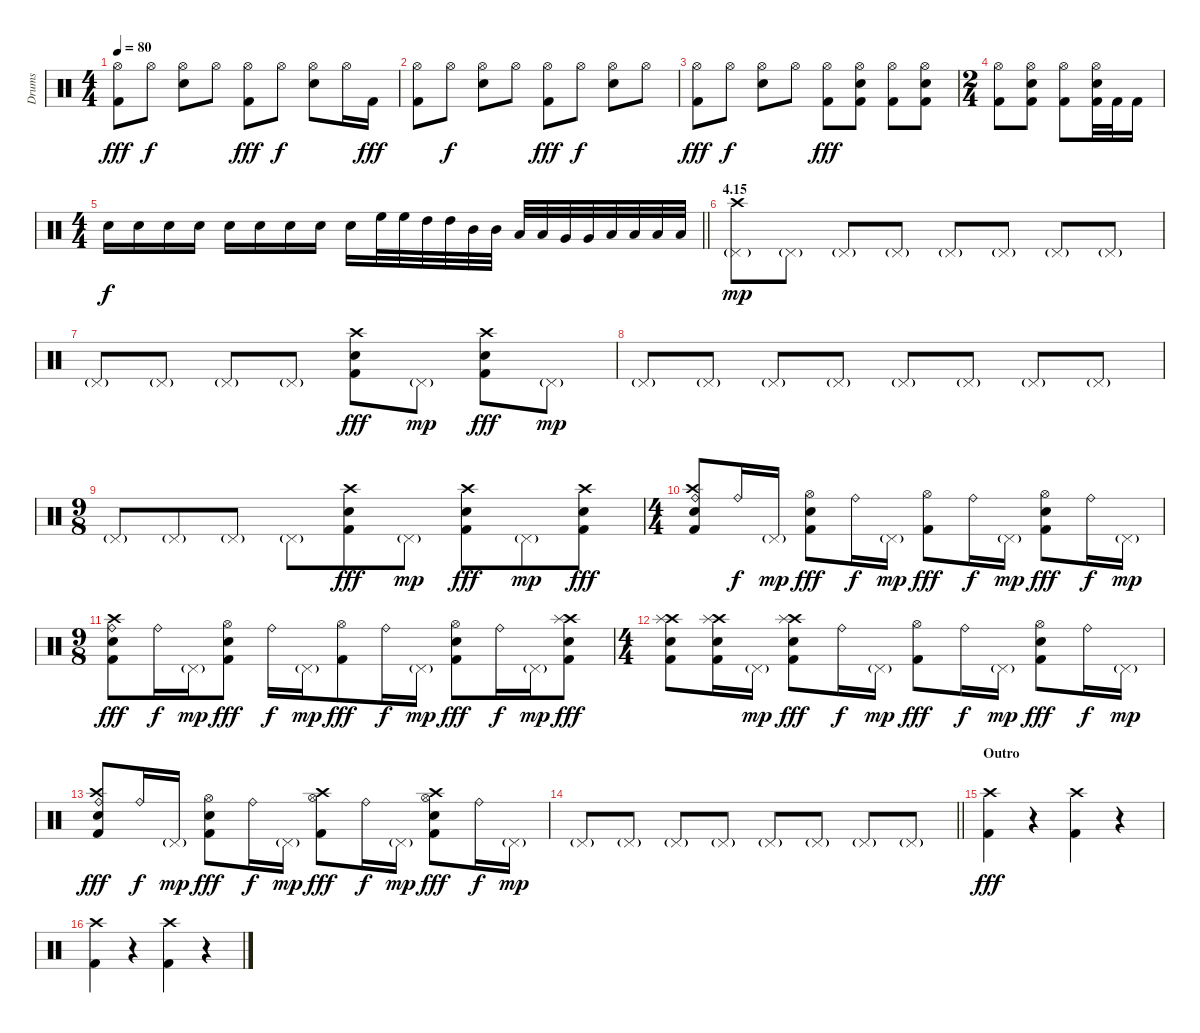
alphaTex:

\track ("Drums" "Drums") {instrument percussion}
\staff {score}
\articulation defaults
\ts (4 4)
\tempo 80
\clef neutral
\ks c
("Hi-Hat (open)" "Kick (hit) 2").8{dy fff} "Hi-Hat (open)".8{dy f} ("Hi-Hat (open)" "Electric Snare (hit)").8 "Hi-Hat (open)".8 ("Hi-Hat (open)" "Kick (hit) 2").8{dy fff} "Hi-Hat (open)".8{dy f} ("Hi-Hat (open)" "Electric Snare (hit)").8 "Hi-Hat (open)".16 "Kick (hit) 2".16{dy fff} |
("Hi-Hat (open)" "Kick (hit) 2").8 "Hi-Hat (open)".8{dy f} ("Hi-Hat (open)" "Electric Snare (hit)").8 "Hi-Hat (open)".8 ("Hi-Hat (open)" "Kick (hit) 2").8{dy fff} "Hi-Hat (open)".8{dy f} ("Hi-Hat (open)" "Electric Snare (hit)").8 "Hi-Hat (open)".8 |
("Hi-Hat (open)" "Kick (hit) 2").8{dy fff} "Hi-Hat (open)".8{dy f} ("Hi-Hat (open)" "Electric Snare (hit)").8 "Hi-Hat (open)".8 ("Hi-Hat (open)" "Kick (hit) 2").8{dy fff} ("Hi-Hat (open)" "Electric Snare (hit)" "Kick (hit) 2").8 ("Hi-Hat (open)" "Kick (hit) 2").8 ("Hi-Hat (open)" "Electric Snare (hit)" "Kick (hit) 2").8 |
\ts (2 4)
("Hi-Hat (open)" "Kick (hit) 2").8 ("Hi-Hat (open)" "Electric Snare (hit)" "Kick (hit) 2").8 ("Hi-Hat (open)" "Kick (hit) 2").8 ("Hi-Hat (open)" "Electric Snare (hit)" "Kick (hit) 2").32 "Kick (hit) 2".32 "Kick (hit) 2".16 |
\ts (4 4)
\barLineRight lightlight "Electric Snare (hit)".16{dy f} "Electric Snare (hit)".16 "Electric Snare (hit)".16 "Electric Snare (hit)".16 "Electric Snare (hit)".16 "Electric Snare (hit)".16 "Electric Snare (hit)".16 "Electric Snare (hit)".16 "Electric Snare (hit)".16 "High Floor Tom (hit)".32 "High Floor Tom (hit)".32 "High Tom (hit)".32 "High Tom (hit)".32 "Mid Tom (hit)".32 "Mid Tom (hit)".32 "Low Tom (hit)".32 "Low Tom (hit)".32 "Very Low Tom (hit)".32 "Very Low Tom (hit)".32 "Low Floor Tom (hit)".32 "Low Floor Tom (hit)".32 "Low Floor Tom (hit)".32 "Low Floor Tom (hit)".32
|
\section ("" "4.15")
("Crash high (hit)" "Pedal Hi-Hat (hit)"{g}).8{dy mp} "Pedal Hi-Hat (hit)"{g}.8 "Pedal Hi-Hat (hit)"{g}.8 "Pedal Hi-Hat (hit)"{g}.8 "Pedal Hi-Hat (hit)"{g}.8 "Pedal Hi-Hat (hit)"{g}.8 "Pedal Hi-Hat (hit)"{g}.8 "Pedal Hi-Hat (hit)"{g}.8 |
"Pedal Hi-Hat (hit)"{g}.8 "Pedal Hi-Hat (hit)"{g}.8 "Pedal Hi-Hat (hit)"{g}.8 "Pedal Hi-Hat (hit)"{g}.8 ("Crash high (hit)" "Electric Snare (hit)" "Kick (hit) 2").8{dy fff} "Pedal Hi-Hat (hit)"{g}.8{dy mp} ("Crash high (hit)" "Electric Snare (hit)" "Kick (hit) 2").8{dy fff} "Pedal Hi-Hat (hit)"{g}.8{dy mp} |
"Pedal Hi-Hat (hit)"{g}.8 "Pedal Hi-Hat (hit)"{g}.8 "Pedal Hi-Hat (hit)"{g}.8 "Pedal Hi-Hat (hit)"{g}.8 "Pedal Hi-Hat (hit)"{g}.8 "Pedal Hi-Hat (hit)"{g}.8 "Pedal Hi-Hat (hit)"{g}.8 "Pedal Hi-Hat (hit)"{g}.8 |
\ts (9 8)
"Pedal Hi-Hat (hit)"{g}.8 "Pedal Hi-Hat (hit)"{g}.8 "Pedal Hi-Hat (hit)"{g}.8 "Pedal Hi-Hat (hit)"{g}.8 ("Crash high (hit)" "Electric Snare (hit)" "Kick (hit) 2").8{dy fff} "Pedal Hi-Hat (hit)"{g}.8{dy mp} ("Crash high (hit)" "Electric Snare (hit)" "Kick (hit) 2").8{dy fff} "Pedal Hi-Hat (hit)"{g}.8{dy mp} ("Crash high (hit)" "Electric Snare (hit)" "Kick (hit) 2").8{dy fff} |
\ts (4 4)
("Crash high (hit)" "Ride (bell)" "Electric Snare (hit)" "Kick (hit) 2").8 "Ride (bell)".16{dy f} "Pedal Hi-Hat (hit)"{g}.16{dy mp} ("Hi-Hat (open)" "Electric Snare (hit)" "Kick (hit) 2").8{dy fff} "Ride (bell)".16{dy f} "Pedal Hi-Hat (hit)"{g}.16{dy mp} ("Hi-Hat (open)" "Kick (hit) 2").8{dy fff} "Ride (bell)".16{dy f} "Pedal Hi-Hat (hit)"{g}.16{dy mp} ("Hi-Hat (open)" "Electric Snare (hit)" "Kick (hit) 2").8{dy fff} "Ride (bell)".16{dy f} "Pedal Hi-Hat (hit)"{g}.16{dy mp} |
\ts (9 8)
("Crash high (hit)" "Ride (bell)" "Electric Snare (hit)" "Kick (hit) 2").8{dy fff} "Ride (bell)".16{dy f} "Pedal Hi-Hat (hit)"{g}.16{dy mp} ("Hi-Hat (open)" "Electric Snare (hit)" "Kick (hit) 2").8{dy fff} "Ride (bell)".16{dy f} "Pedal Hi-Hat (hit)"{g}.16{dy mp} ("Hi-Hat (open)" "Kick (hit) 2").8{dy fff} "Ride (bell)".16{dy f} "Pedal Hi-Hat (hit)"{g}.16{dy mp} ("Hi-Hat (open)" "Electric Snare (hit)" "Kick (hit) 2").8{dy fff} "Ride (bell)".16{dy f} "Pedal Hi-Hat (hit)"{g}.16{dy mp} ("Crash high (hit)" "Splash (hit)" "Electric Snare (hit)" "Kick (hit) 2").8{dy fff} |
\ts (4 4)
("Crash high (hit)" "Splash (hit)" "Electric Snare (hit)" "Kick (hit) 2").8 ("Crash high (hit)" "Splash (hit)" "Electric Snare (hit)" "Kick (hit) 2").16 "Pedal Hi-Hat (hit)"{g}.16{dy mp} ("Crash high (hit)" "Splash (hit)" "Electric Snare (hit)" "Kick (hit) 2").8{dy fff} "Ride (bell)".16{dy f} "Pedal Hi-Hat (hit)"{g}.16{dy mp} ("Hi-Hat (open)" "Kick (hit) 2").8{dy fff} "Ride (bell)".16{dy f} "Pedal Hi-Hat (hit)"{g}.16{dy mp} ("Hi-Hat (open)" "Electric Snare (hit)" "Kick (hit) 2").8{dy fff} "Ride (bell)".16{dy f} "Pedal Hi-Hat (hit)"{g}.16{dy mp} |
("Crash high (hit)" "Ride (bell)" "Electric Snare (hit)" "Kick (hit) 2").8{dy fff} "Ride (bell)".16{dy f} "Pedal Hi-Hat (hit)"{g}.16{dy mp} ("Hi-Hat (open)" "Electric Snare (hit)" "Kick (hit) 2").8{dy fff} "Ride (bell)".16{dy f} "Pedal Hi-Hat (hit)"{g}.16{dy mp} ("Crash high (hit)" "Hi-Hat (open)" "Kick (hit) 2").8{dy fff} "Ride (bell)".16{dy f} "Pedal Hi-Hat (hit)"{g}.16{dy mp} ("Crash high (hit)" "Hi-Hat (open)" "Electric Snare (hit)" "Kick (hit) 2").8{dy fff} "Ride (bell)".16{dy f} "Pedal Hi-Hat (hit)"{g}.16{dy mp} |
\barLineRight lightlight "Pedal Hi-Hat (hit)"{g}.8 "Pedal Hi-Hat (hit)"{g}.8 "Pedal Hi-Hat (hit)"{g}.8 "Pedal Hi-Hat (hit)"{g}.8 "Pedal Hi-Hat (hit)"{g}.8 "Pedal Hi-Hat (hit)"{g}.8 "Pedal Hi-Hat (hit)"{g}.8 "Pedal Hi-Hat (hit)"{g}.8
|
\section ("" "Outro")
("Crash high (hit)" "Kick (hit) 2").4{dy fff} r.4 ("Crash high (hit)" "Kick (hit) 2").4 r.4 |
("Crash high (hit)" "Kick (hit) 2").4 r.4 ("Crash high (hit)" "Kick (hit) 2").4 r.4
